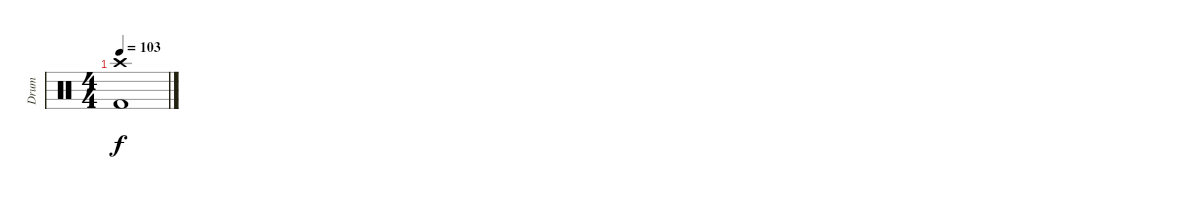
\track ("Drum" "Drum") {instrument percussion}
\staff {score}
\articulation defaults
\ts (4 4)
\tempo 103
\clef neutral
\ks c
("Kick (hit) 2" "Crash high (hit)").1{dy f}
